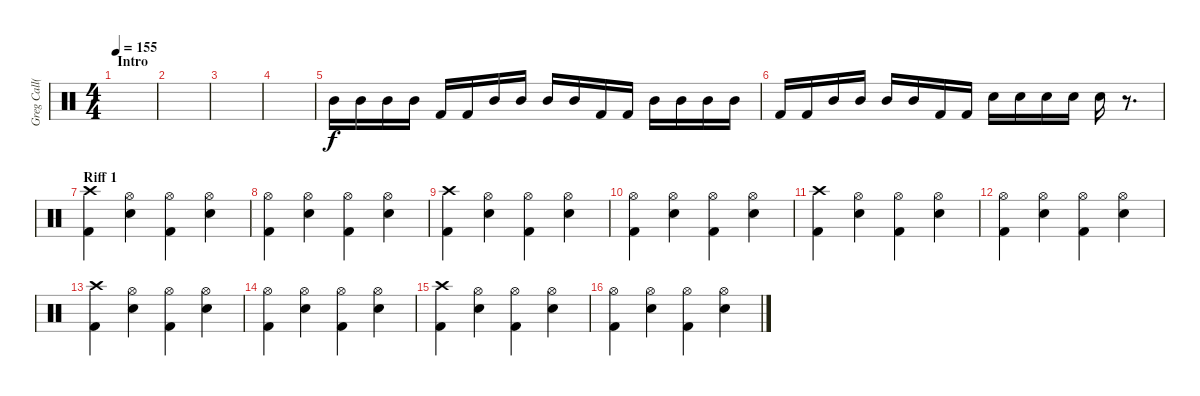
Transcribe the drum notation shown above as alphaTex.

\track ("Greg Call(Drums)" "Greg Call(") {instrument percussion}
\staff {score}
\articulation defaults
\ts (4 4)
\section ("" "Intro")
\tempo 155
\clef neutral
\ks c
|
|
|
|
"Mid Tom (hit)".16 "Mid Tom (hit)".16 "Mid Tom (hit)".16 "Mid Tom (hit)".16 "Kick (hit) 2".16 "Kick (hit) 2".16 "Mid Tom (hit)".16 "Mid Tom (hit)".16 "Mid Tom (hit)".16 "Mid Tom (hit)".16 "Kick (hit) 2".16 "Kick (hit) 2".16 "Mid Tom (hit)".16 "Mid Tom (hit)".16 "Mid Tom (hit)".16 "Mid Tom (hit)".16 |
"Kick (hit) 2".16 "Kick (hit) 2".16 "Mid Tom (hit)".16 "Mid Tom (hit)".16 "Mid Tom (hit)".16 "Mid Tom (hit)".16 "Kick (hit) 2".16 "Kick (hit) 2".16 "Snare (hit) 2".16 "Snare (hit) 2".16 "Snare (hit) 2".16 "Snare (hit) 2".16 "Snare (hit) 2".16 r.8{d} |
\section ("" "Riff 1")
("Kick (hit) 2" "Crash high (hit)").4 ("Snare (hit) 2" "Hi-Hat (open)").4 ("Kick (hit) 2" "Hi-Hat (open)").4 ("Snare (hit) 2" "Hi-Hat (open)").4 |
("Kick (hit) 2" "Hi-Hat (open)").4 ("Snare (hit) 2" "Hi-Hat (open)").4 ("Kick (hit) 2" "Hi-Hat (open)").4 ("Snare (hit) 2" "Hi-Hat (open)").4 |
("Kick (hit) 2" "Crash high (hit)").4 ("Snare (hit) 2" "Hi-Hat (open)").4 ("Kick (hit) 2" "Hi-Hat (open)").4 ("Snare (hit) 2" "Hi-Hat (open)").4 |
("Kick (hit) 2" "Hi-Hat (open)").4 ("Snare (hit) 2" "Hi-Hat (open)").4 ("Kick (hit) 2" "Hi-Hat (open)").4 ("Snare (hit) 2" "Hi-Hat (open)").4 |
("Kick (hit) 2" "Crash high (hit)").4 ("Snare (hit) 2" "Hi-Hat (open)").4 ("Kick (hit) 2" "Hi-Hat (open)").4 ("Snare (hit) 2" "Hi-Hat (open)").4 |
("Kick (hit) 2" "Hi-Hat (open)").4 ("Snare (hit) 2" "Hi-Hat (open)").4 ("Kick (hit) 2" "Hi-Hat (open)").4 ("Snare (hit) 2" "Hi-Hat (open)").4 |
("Kick (hit) 2" "Crash high (hit)").4 ("Snare (hit) 2" "Hi-Hat (open)").4 ("Kick (hit) 2" "Hi-Hat (open)").4 ("Snare (hit) 2" "Hi-Hat (open)").4 |
("Kick (hit) 2" "Hi-Hat (open)").4 ("Snare (hit) 2" "Hi-Hat (open)").4 ("Kick (hit) 2" "Hi-Hat (open)").4 ("Snare (hit) 2" "Hi-Hat (open)").4 |
("Kick (hit) 2" "Crash high (hit)").4 ("Snare (hit) 2" "Hi-Hat (open)").4 ("Kick (hit) 2" "Hi-Hat (open)").4 ("Snare (hit) 2" "Hi-Hat (open)").4 |
("Kick (hit) 2" "Hi-Hat (open)").4 ("Snare (hit) 2" "Hi-Hat (open)").4 ("Kick (hit) 2" "Hi-Hat (open)").4 ("Snare (hit) 2" "Hi-Hat (open)").4
